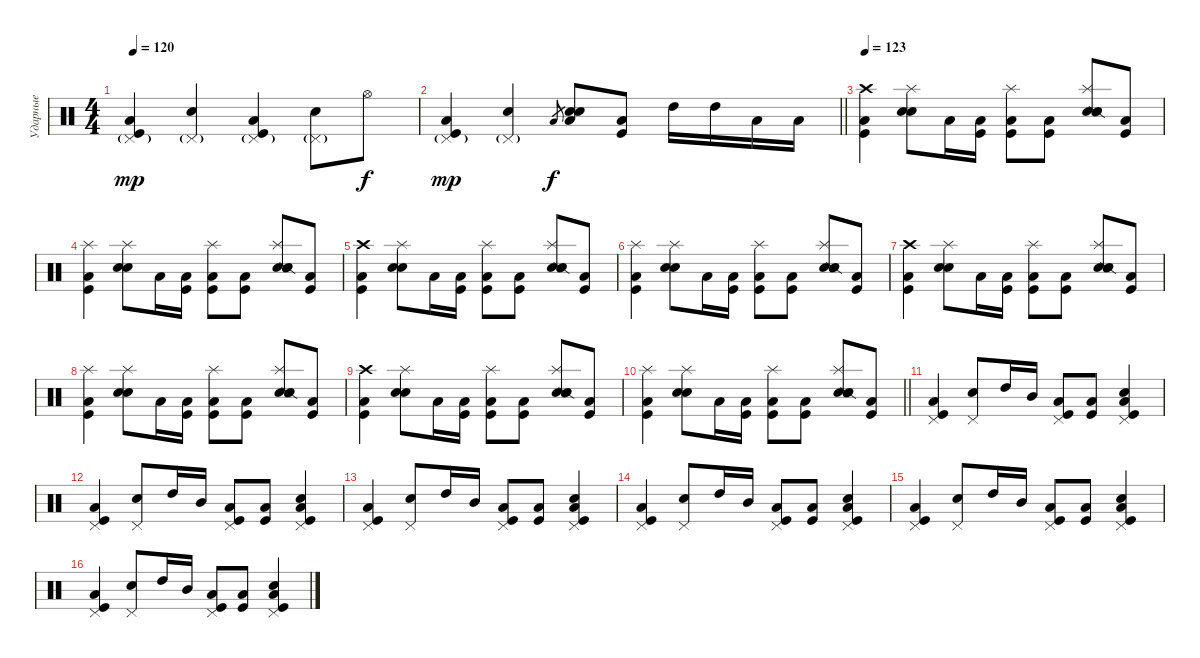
\track ("Ударные" "Ударные") {instrument percussion}
\staff {score}
\articulation defaults
\ts (4 4)
\tempo 120
\clef neutral
\ks c
("Pedal Hi-Hat (hit)"{g} "Low Tom (hit)" "Kick (hit)").4{dy mp} ("Pedal Hi-Hat (hit)"{g} "Electric Snare (hit)").4 ("Pedal Hi-Hat (hit)"{g} "Low Tom (hit)" "Kick (hit)").4 ("Pedal Hi-Hat (hit)"{g} "Electric Snare (hit)").8 "Hi-Hat (open)".8{dy f} |
\barLineRight lightlight
("Pedal Hi-Hat (hit)"{g} "Low Tom (hit)" "Kick (hit)").4{dy mp} ("Pedal Hi-Hat (hit)"{g} "Electric Snare (hit)").4 "Low Tom (hit)".8{gr dy f} ("Electric Snare (hit)" "Snare (hit) 2" "Low Tom (hit)").8 ("Low Tom (hit)" "Kick (hit)").8 "High Tom (hit)".16 "High Tom (hit)".16 "Low Tom (hit)".16 "Low Tom (hit)".16 |
\tempo 123
("Crash high (hit)" "Low Tom (hit)" "Kick (hit)").4 ("Splash (hit)" "Electric Snare (hit)" "Snare (hit) 2").8 "Low Floor Tom (hit)".16 ("Low Tom (hit)" "Kick (hit)").16 ("Splash (hit)" "Low Tom (hit)" "Kick (hit)").8 ("Low Tom (hit)" "Kick (hit)").8 ("Splash (hit)" "Electric Snare (hit)" "Snare (hit) 2" "Snare (side stick) 2").8 ("Low Tom (hit)" "Kick (hit)").8 |
("Splash (hit)" "Low Tom (hit)" "Kick (hit)").4 ("Splash (hit)" "Electric Snare (hit)" "Snare (hit) 2").8 "Low Floor Tom (hit)".16 ("Low Tom (hit)" "Kick (hit)").16 ("Splash (hit)" "Low Tom (hit)" "Kick (hit)").8 ("Low Tom (hit)" "Kick (hit)").8 ("Splash (hit)" "Electric Snare (hit)" "Snare (hit) 2" "Snare (side stick) 2").8 ("Low Tom (hit)" "Kick (hit)").8 |
("Crash high (hit)" "Low Tom (hit)" "Kick (hit)").4 ("Splash (hit)" "Electric Snare (hit)" "Snare (hit) 2").8 "Low Floor Tom (hit)".16 ("Low Tom (hit)" "Kick (hit)").16 ("Splash (hit)" "Low Tom (hit)" "Kick (hit)").8 ("Low Tom (hit)" "Kick (hit)").8 ("Splash (hit)" "Electric Snare (hit)" "Snare (hit) 2" "Snare (side stick) 2").8 ("Low Tom (hit)" "Kick (hit)").8 |
("Splash (hit)" "Low Tom (hit)" "Kick (hit)").4 ("Splash (hit)" "Electric Snare (hit)" "Snare (hit) 2").8 "Low Floor Tom (hit)".16 ("Low Tom (hit)" "Kick (hit)").16 ("Splash (hit)" "Low Tom (hit)" "Kick (hit)").8 ("Low Tom (hit)" "Kick (hit)").8 ("Splash (hit)" "Electric Snare (hit)" "Snare (hit) 2" "Snare (side stick) 2").8 ("Low Tom (hit)" "Kick (hit)").8 |
("Crash high (hit)" "Low Tom (hit)" "Kick (hit)").4 ("Splash (hit)" "Electric Snare (hit)" "Snare (hit) 2").8 "Low Floor Tom (hit)".16 ("Low Tom (hit)" "Kick (hit)").16 ("Splash (hit)" "Low Tom (hit)" "Kick (hit)").8 ("Low Tom (hit)" "Kick (hit)").8 ("Splash (hit)" "Electric Snare (hit)" "Snare (hit) 2" "Snare (side stick) 2").8 ("Low Tom (hit)" "Kick (hit)").8 |
("Splash (hit)" "Low Tom (hit)" "Kick (hit)").4 ("Splash (hit)" "Electric Snare (hit)" "Snare (hit) 2").8 "Low Floor Tom (hit)".16 ("Low Tom (hit)" "Kick (hit)").16 ("Splash (hit)" "Low Tom (hit)" "Kick (hit)").8 ("Low Tom (hit)" "Kick (hit)").8 ("Splash (hit)" "Electric Snare (hit)" "Snare (hit) 2" "Snare (side stick) 2").8 ("Low Tom (hit)" "Kick (hit)").8 |
("Crash high (hit)" "Low Tom (hit)" "Kick (hit)").4 ("Splash (hit)" "Electric Snare (hit)" "Snare (hit) 2").8 "Low Floor Tom (hit)".16 ("Low Tom (hit)" "Kick (hit)").16 ("Splash (hit)" "Low Tom (hit)" "Kick (hit)").8 ("Low Tom (hit)" "Kick (hit)").8 ("Splash (hit)" "Electric Snare (hit)" "Snare (hit) 2" "Snare (side stick) 2").8 ("Low Tom (hit)" "Kick (hit)").8 |
\barLineRight lightlight
("Splash (hit)" "Low Tom (hit)" "Kick (hit)").4 ("Splash (hit)" "Electric Snare (hit)" "Snare (hit) 2").8 "Low Floor Tom (hit)".16 ("Low Tom (hit)" "Kick (hit)").16 ("Splash (hit)" "Low Tom (hit)" "Kick (hit)").8 ("Low Tom (hit)" "Kick (hit)").8 ("Splash (hit)" "Electric Snare (hit)" "Snare (hit) 2" "Snare (side stick) 2").8 ("Low Tom (hit)" "Kick (hit)").8 |
("Low Tom (hit)" "Kick (hit)" "Pedal Hi-Hat (hit)").4 ("Snare (hit) 2" "Pedal Hi-Hat (hit)").8 "High Tom (hit)".16 "Mid Tom (hit)".16 ("Low Tom (hit)" "Kick (hit)" "Pedal Hi-Hat (hit)").8 ("Low Tom (hit)" "Kick (hit)").8 ("Snare (hit) 2" "Low Tom (hit)" "Kick (hit)" "Pedal Hi-Hat (hit)").4 |
("Low Tom (hit)" "Kick (hit)" "Pedal Hi-Hat (hit)").4 ("Snare (hit) 2" "Pedal Hi-Hat (hit)").8 "High Tom (hit)".16 "Mid Tom (hit)".16 ("Low Tom (hit)" "Kick (hit)" "Pedal Hi-Hat (hit)").8 ("Low Tom (hit)" "Kick (hit)").8 ("Snare (hit) 2" "Low Tom (hit)" "Kick (hit)" "Pedal Hi-Hat (hit)").4 |
("Low Tom (hit)" "Kick (hit)" "Pedal Hi-Hat (hit)").4 ("Snare (hit) 2" "Pedal Hi-Hat (hit)").8 "High Tom (hit)".16 "Mid Tom (hit)".16 ("Low Tom (hit)" "Kick (hit)" "Pedal Hi-Hat (hit)").8 ("Low Tom (hit)" "Kick (hit)").8 ("Snare (hit) 2" "Low Tom (hit)" "Kick (hit)" "Pedal Hi-Hat (hit)").4 |
("Low Tom (hit)" "Kick (hit)" "Pedal Hi-Hat (hit)").4 ("Snare (hit) 2" "Pedal Hi-Hat (hit)").8 "High Tom (hit)".16 "Mid Tom (hit)".16 ("Low Tom (hit)" "Kick (hit)" "Pedal Hi-Hat (hit)").8 ("Low Tom (hit)" "Kick (hit)").8 ("Snare (hit) 2" "Low Tom (hit)" "Kick (hit)" "Pedal Hi-Hat (hit)").4 |
("Low Tom (hit)" "Kick (hit)" "Pedal Hi-Hat (hit)").4 ("Snare (hit) 2" "Pedal Hi-Hat (hit)").8 "High Tom (hit)".16 "Mid Tom (hit)".16 ("Low Tom (hit)" "Kick (hit)" "Pedal Hi-Hat (hit)").8 ("Low Tom (hit)" "Kick (hit)").8 ("Snare (hit) 2" "Low Tom (hit)" "Kick (hit)" "Pedal Hi-Hat (hit)").4 |
("Low Tom (hit)" "Kick (hit)" "Pedal Hi-Hat (hit)").4 ("Snare (hit) 2" "Pedal Hi-Hat (hit)").8 "High Tom (hit)".16 "Mid Tom (hit)".16 ("Low Tom (hit)" "Kick (hit)" "Pedal Hi-Hat (hit)").8 ("Low Tom (hit)" "Kick (hit)").8 ("Snare (hit) 2" "Low Tom (hit)" "Kick (hit)" "Pedal Hi-Hat (hit)").4
